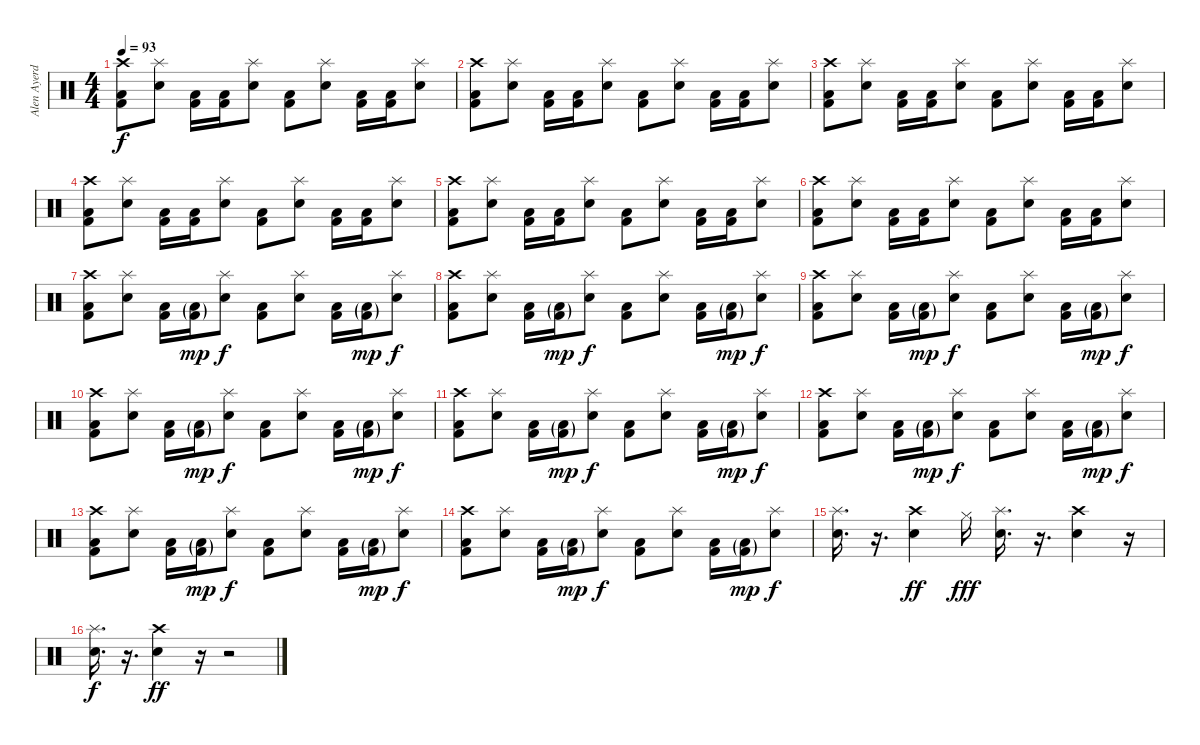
\track ("Alen Ayerdi" "Alen Ayerd") {instrument percussion}
\staff {score}
\articulation defaults
\ts (4 4)
\tempo 93
\clef neutral
\ks c
("Crash high (hit)" "Low Floor Tom (hit)" "Kick (hit) 2").8{dy f} ("Splash (hit)" "Electric Snare (hit)").8 ("Low Floor Tom (hit)" "Kick (hit) 2").16 ("Low Floor Tom (hit)" "Kick (hit) 2").16 ("Splash (hit)" "Electric Snare (hit)").8 ("Low Floor Tom (hit)" "Kick (hit) 2").8 ("Splash (hit)" "Electric Snare (hit)").8 ("Low Floor Tom (hit)" "Kick (hit) 2").16 ("Low Floor Tom (hit)" "Kick (hit) 2").16 ("Splash (hit)" "Electric Snare (hit)").8 |
("Crash high (hit)" "Low Floor Tom (hit)" "Kick (hit) 2").8 ("Splash (hit)" "Electric Snare (hit)").8 ("Low Floor Tom (hit)" "Kick (hit) 2").16 ("Low Floor Tom (hit)" "Kick (hit) 2").16 ("Splash (hit)" "Electric Snare (hit)").8 ("Low Floor Tom (hit)" "Kick (hit) 2").8 ("Splash (hit)" "Electric Snare (hit)").8 ("Low Floor Tom (hit)" "Kick (hit) 2").16 ("Low Floor Tom (hit)" "Kick (hit) 2").16 ("Splash (hit)" "Electric Snare (hit)").8 |
("Crash high (hit)" "Low Floor Tom (hit)" "Kick (hit) 2").8 ("Splash (hit)" "Electric Snare (hit)").8 ("Low Floor Tom (hit)" "Kick (hit) 2").16 ("Low Floor Tom (hit)" "Kick (hit) 2").16 ("Splash (hit)" "Electric Snare (hit)").8 ("Low Floor Tom (hit)" "Kick (hit) 2").8 ("Splash (hit)" "Electric Snare (hit)").8 ("Low Floor Tom (hit)" "Kick (hit) 2").16 ("Low Floor Tom (hit)" "Kick (hit) 2").16 ("Splash (hit)" "Electric Snare (hit)").8 |
("Crash high (hit)" "Low Floor Tom (hit)" "Kick (hit) 2").8 ("Splash (hit)" "Electric Snare (hit)").8 ("Low Floor Tom (hit)" "Kick (hit) 2").16 ("Low Floor Tom (hit)" "Kick (hit) 2").16 ("Splash (hit)" "Electric Snare (hit)").8 ("Low Floor Tom (hit)" "Kick (hit) 2").8 ("Splash (hit)" "Electric Snare (hit)").8 ("Low Floor Tom (hit)" "Kick (hit) 2").16 ("Low Floor Tom (hit)" "Kick (hit) 2").16 ("Splash (hit)" "Electric Snare (hit)").8 |
("Crash high (hit)" "Low Floor Tom (hit)" "Kick (hit) 2").8 ("Splash (hit)" "Electric Snare (hit)").8 ("Low Floor Tom (hit)" "Kick (hit) 2").16 ("Low Floor Tom (hit)" "Kick (hit) 2").16 ("Splash (hit)" "Electric Snare (hit)").8 ("Low Floor Tom (hit)" "Kick (hit) 2").8 ("Splash (hit)" "Electric Snare (hit)").8 ("Low Floor Tom (hit)" "Kick (hit) 2").16 ("Low Floor Tom (hit)" "Kick (hit) 2").16 ("Splash (hit)" "Electric Snare (hit)").8 |
("Crash high (hit)" "Low Floor Tom (hit)" "Kick (hit) 2").8 ("Splash (hit)" "Electric Snare (hit)").8 ("Low Floor Tom (hit)" "Kick (hit) 2").16 ("Low Floor Tom (hit)" "Kick (hit) 2").16 ("Splash (hit)" "Electric Snare (hit)").8 ("Low Floor Tom (hit)" "Kick (hit) 2").8 ("Splash (hit)" "Electric Snare (hit)").8 ("Low Floor Tom (hit)" "Kick (hit) 2").16 ("Low Floor Tom (hit)" "Kick (hit) 2").16 ("Splash (hit)" "Electric Snare (hit)").8 |
("Crash high (hit)" "Low Floor Tom (hit)" "Kick (hit) 2").8 ("Splash (hit)" "Electric Snare (hit)").8 ("Low Floor Tom (hit)" "Kick (hit) 2").16 ("Low Floor Tom (hit)"{g} "Kick (hit) 2"{g}).16{dy mp} ("Splash (hit)" "Electric Snare (hit)").8{dy f} ("Low Floor Tom (hit)" "Kick (hit) 2").8 ("Splash (hit)" "Electric Snare (hit)").8 ("Low Floor Tom (hit)" "Kick (hit) 2").16 ("Low Floor Tom (hit)"{g} "Kick (hit) 2"{g}).16{dy mp} ("Splash (hit)" "Electric Snare (hit)").8{dy f} |
("Crash high (hit)" "Low Floor Tom (hit)" "Kick (hit) 2").8 ("Splash (hit)" "Electric Snare (hit)").8 ("Low Floor Tom (hit)" "Kick (hit) 2").16 ("Low Floor Tom (hit)"{g} "Kick (hit) 2"{g}).16{dy mp} ("Splash (hit)" "Electric Snare (hit)").8{dy f} ("Low Floor Tom (hit)" "Kick (hit) 2").8 ("Splash (hit)" "Electric Snare (hit)").8 ("Low Floor Tom (hit)" "Kick (hit) 2").16 ("Low Floor Tom (hit)"{g} "Kick (hit) 2"{g}).16{dy mp} ("Splash (hit)" "Electric Snare (hit)").8{dy f} |
("Crash high (hit)" "Low Floor Tom (hit)" "Kick (hit) 2").8 ("Splash (hit)" "Electric Snare (hit)").8 ("Low Floor Tom (hit)" "Kick (hit) 2").16 ("Low Floor Tom (hit)"{g} "Kick (hit) 2"{g}).16{dy mp} ("Splash (hit)" "Electric Snare (hit)").8{dy f} ("Low Floor Tom (hit)" "Kick (hit) 2").8 ("Splash (hit)" "Electric Snare (hit)").8 ("Low Floor Tom (hit)" "Kick (hit) 2").16 ("Low Floor Tom (hit)"{g} "Kick (hit) 2"{g}).16{dy mp} ("Splash (hit)" "Electric Snare (hit)").8{dy f} |
("Crash high (hit)" "Low Floor Tom (hit)" "Kick (hit) 2").8 ("Splash (hit)" "Electric Snare (hit)").8 ("Low Floor Tom (hit)" "Kick (hit) 2").16 ("Low Floor Tom (hit)"{g} "Kick (hit) 2"{g}).16{dy mp} ("Splash (hit)" "Electric Snare (hit)").8{dy f} ("Low Floor Tom (hit)" "Kick (hit) 2").8 ("Splash (hit)" "Electric Snare (hit)").8 ("Low Floor Tom (hit)" "Kick (hit) 2").16 ("Low Floor Tom (hit)"{g} "Kick (hit) 2"{g}).16{dy mp} ("Splash (hit)" "Electric Snare (hit)").8{dy f} |
("Crash high (hit)" "Low Floor Tom (hit)" "Kick (hit) 2").8 ("Splash (hit)" "Electric Snare (hit)").8 ("Low Floor Tom (hit)" "Kick (hit) 2").16 ("Low Floor Tom (hit)"{g} "Kick (hit) 2"{g}).16{dy mp} ("Splash (hit)" "Electric Snare (hit)").8{dy f} ("Low Floor Tom (hit)" "Kick (hit) 2").8 ("Splash (hit)" "Electric Snare (hit)").8 ("Low Floor Tom (hit)" "Kick (hit) 2").16 ("Low Floor Tom (hit)"{g} "Kick (hit) 2"{g}).16{dy mp} ("Splash (hit)" "Electric Snare (hit)").8{dy f} |
("Crash high (hit)" "Low Floor Tom (hit)" "Kick (hit) 2").8 ("Splash (hit)" "Electric Snare (hit)").8 ("Low Floor Tom (hit)" "Kick (hit) 2").16 ("Low Floor Tom (hit)"{g} "Kick (hit) 2"{g}).16{dy mp} ("Splash (hit)" "Electric Snare (hit)").8{dy f} ("Low Floor Tom (hit)" "Kick (hit) 2").8 ("Splash (hit)" "Electric Snare (hit)").8 ("Low Floor Tom (hit)" "Kick (hit) 2").16 ("Low Floor Tom (hit)"{g} "Kick (hit) 2"{g}).16{dy mp} ("Splash (hit)" "Electric Snare (hit)").8{dy f} |
("Crash high (hit)" "Low Floor Tom (hit)" "Kick (hit) 2").8 ("Splash (hit)" "Electric Snare (hit)").8 ("Low Floor Tom (hit)" "Kick (hit) 2").16 ("Low Floor Tom (hit)"{g} "Kick (hit) 2"{g}).16{dy mp} ("Splash (hit)" "Electric Snare (hit)").8{dy f} ("Low Floor Tom (hit)" "Kick (hit) 2").8 ("Splash (hit)" "Electric Snare (hit)").8 ("Low Floor Tom (hit)" "Kick (hit) 2").16 ("Low Floor Tom (hit)"{g} "Kick (hit) 2"{g}).16{dy mp} ("Splash (hit)" "Electric Snare (hit)").8{dy f} |
("Crash high (hit)" "Low Floor Tom (hit)" "Kick (hit) 2").8 ("Splash (hit)" "Electric Snare (hit)").8 ("Low Floor Tom (hit)" "Kick (hit) 2").16 ("Low Floor Tom (hit)"{g} "Kick (hit) 2"{g}).16{dy mp} ("Splash (hit)" "Electric Snare (hit)").8{dy f} ("Low Floor Tom (hit)" "Kick (hit) 2").8 ("Splash (hit)" "Electric Snare (hit)").8 ("Low Floor Tom (hit)" "Kick (hit) 2").16 ("Low Floor Tom (hit)"{g} "Kick (hit) 2"{g}).16{dy mp} ("Splash (hit)" "Electric Snare (hit)").8{dy f} |
("Splash (hit)" "Electric Snare (hit)").16{d} r.16{d} ("Crash high (hit)" "Electric Snare (hit)").4{dy ff} "Hi-Hat (closed)".16{dy fff} ("Splash (hit)" "Electric Snare (hit)").16{d} r.16{d} ("Crash high (hit)" "Electric Snare (hit)").4 r.16 |
("Splash (hit)" "Electric Snare (hit)").16{d dy f} r.16{d} ("Crash high (hit)" "Electric Snare (hit)").4{dy ff} r.16 r.2
